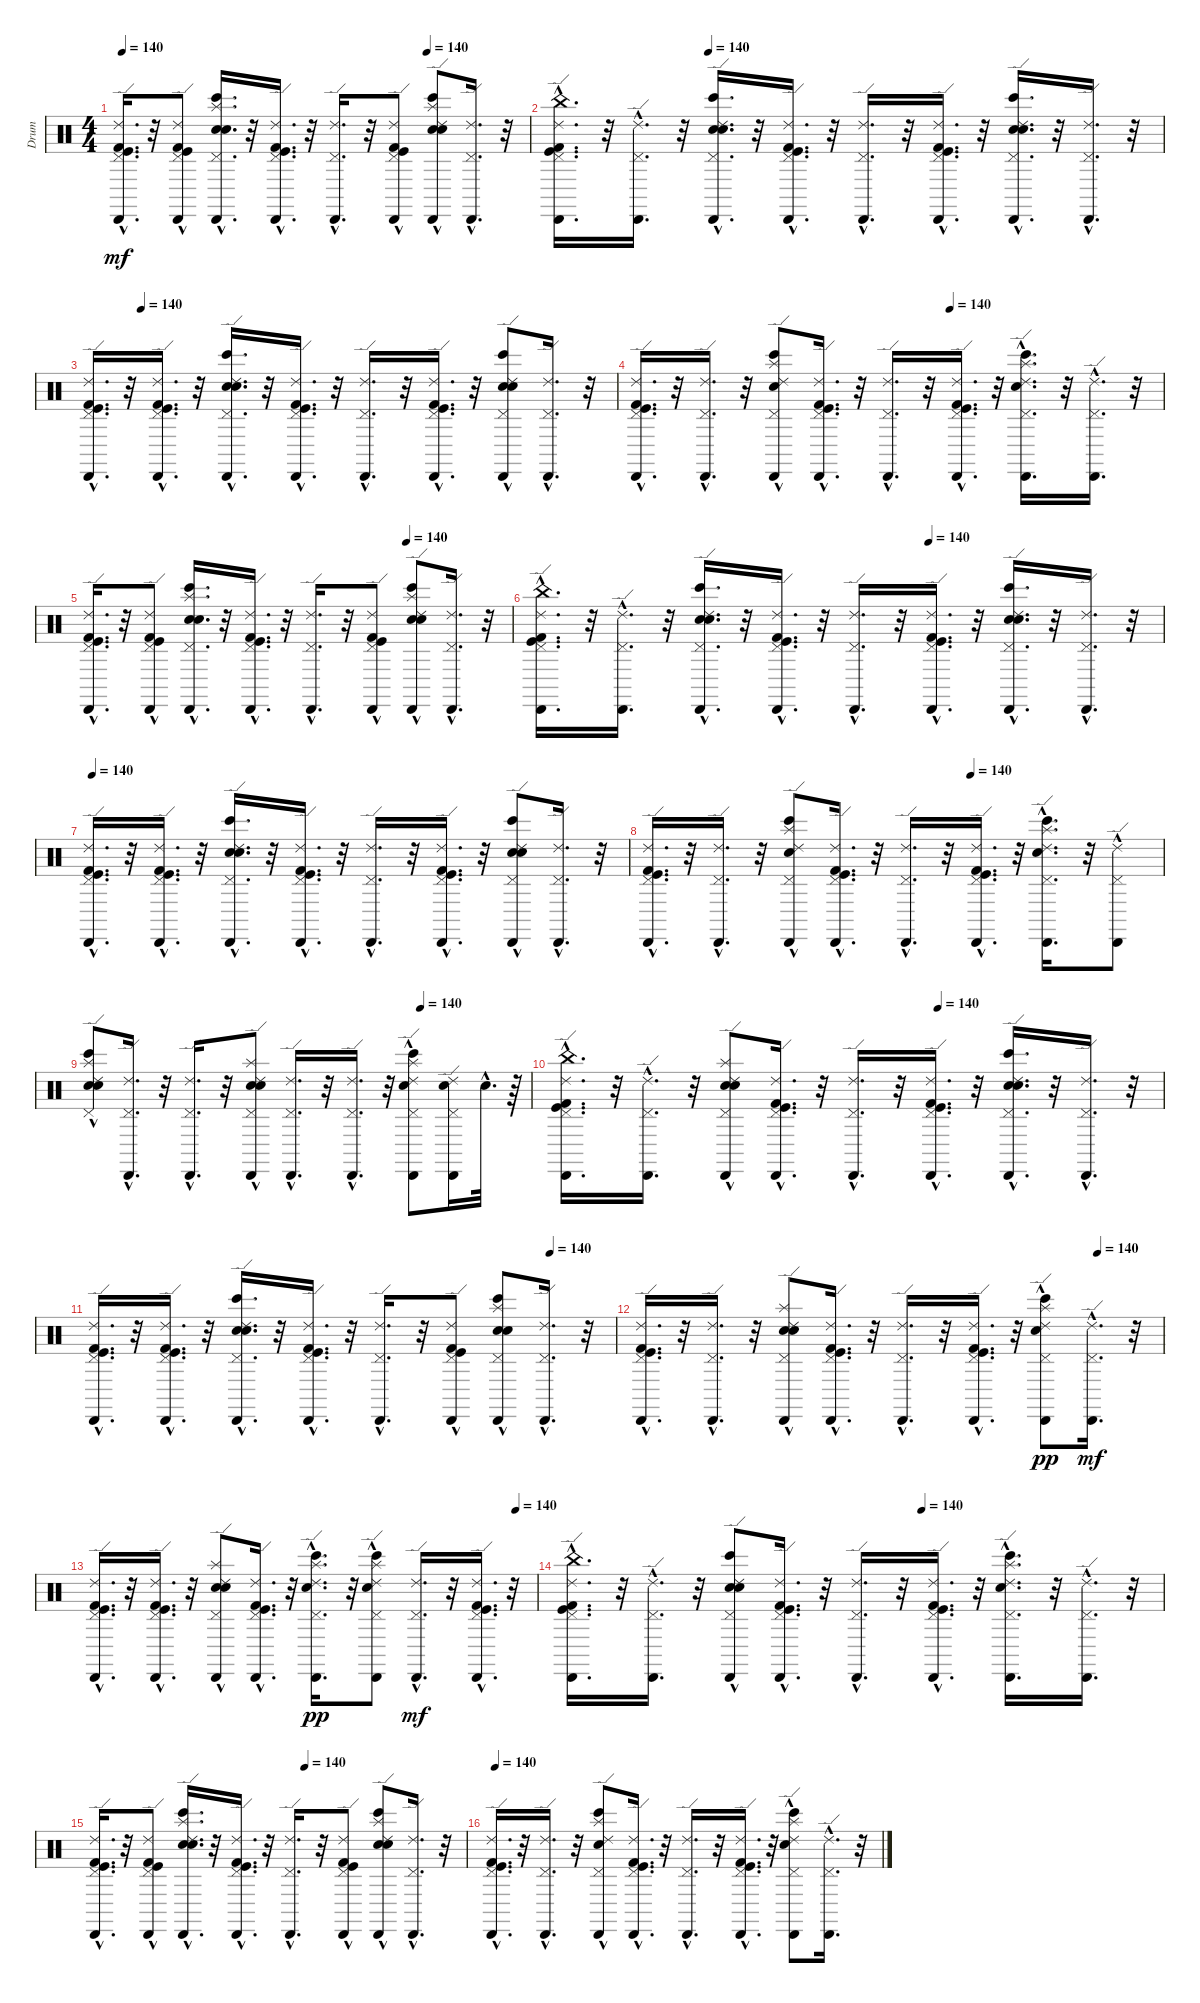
\track ("Drum" "Drum") {instrument percussion}
\staff {score}
\articulation defaults
\ts (4 4)
\tempo 140
\tempo (140 0.75)
\clef neutral
\ks c
("Ride (edge) 2"{hac} "Kick (hit) 2"{hac} "Cabasa (hit)"{hac} "Kick (hit)"{hac} "Pedal Hi-Hat (hit)"{hac}).16{d dy mf} r.32 ("Cabasa (hit)"{hac} "Ride (edge) 2"{hac} "Pedal Hi-Hat (hit)"{hac} "Kick (hit)"{hac} "Kick (hit) 2"{hac}).8 ("Electric Snare (hit)"{hac} "Bongo High (hit)"{hac} "Splash (hit)"{hac} "Snare (hit) 2"{hac} "Pedal Hi-Hat (hit)"{hac} "Cabasa (hit)"{hac}).16{d} r.32 ("Ride (edge) 2"{hac} "Kick (hit) 2"{hac} "Cabasa (hit)"{hac} "Kick (hit)"{hac} "Pedal Hi-Hat (hit)"{hac}).16{d} r.32 ("Cabasa (hit)"{hac} "Ride (edge) 2"{hac} "Pedal Hi-Hat (hit)"{hac}).16{d} r.32 ("Cabasa (hit)"{hac} "Ride (edge) 2"{hac} "Kick (hit)"{hac} "Pedal Hi-Hat (hit)"{hac} "Kick (hit) 2"{hac}).8 ("Bongo High (hit)"{hac} "Electric Snare (hit)"{hac} "Cabasa (hit)"{hac} "Splash (hit)" "Snare (hit) 2"{hac} "Ride (edge) 2"{hac}).8 ("Cabasa (hit)"{hac} "Ride (edge) 2"{hac} "Pedal Hi-Hat (hit)"{hac}).16{d} r.32 |
\tempo (140 0.25)
("Pedal Hi-Hat (hit)"{hac} "Kick (hit)"{hac} "Kick (hit) 2"{hac} "Ride (edge) 2"{hac} "Cabasa (hit)"{hac} "China (hit)"{hac}).16{d} r.32 ("Pedal Hi-Hat (hit)"{hac} "Ride (edge) 2"{hac} "Cabasa (hit)"{hac}).16{d} r.32 ("Pedal Hi-Hat (hit)"{hac} "Snare (hit) 2"{hac} "Ride (edge) 2"{hac} "Cabasa (hit)"{hac} "Electric Snare (hit)"{hac} "Bongo High (hit)"{hac}).16{d} r.32 ("Pedal Hi-Hat (hit)"{hac} "Kick (hit)"{hac} "Kick (hit) 2"{hac} "Ride (edge) 2"{hac} "Cabasa (hit)"{hac}).16{d} r.32 ("Pedal Hi-Hat (hit)"{hac} "Ride (edge) 2"{hac} "Cabasa (hit)"{hac}).16{d} r.32 ("Pedal Hi-Hat (hit)"{hac} "Kick (hit)"{hac} "Kick (hit) 2"{hac} "Ride (edge) 2"{hac} "Cabasa (hit)"{hac}).16{d} r.32 ("Pedal Hi-Hat (hit)"{hac} "Snare (hit) 2"{hac} "Ride (edge) 2"{hac} "Cabasa (hit)"{hac} "Electric Snare (hit)"{hac} "Bongo High (hit)"{hac}).16{d} r.32 ("Pedal Hi-Hat (hit)"{hac} "Ride (edge) 2"{hac} "Cabasa (hit)"{hac}).16{d} r.32 |
\tempo (140 0.09375)
("Kick (hit)"{hac} "Pedal Hi-Hat (hit)"{hac} "Kick (hit) 2"{hac} "Ride (edge) 2"{hac} "Cabasa (hit)"{hac}).16{d} r.32 ("Pedal Hi-Hat (hit)"{hac} "Kick (hit)"{hac} "Kick (hit) 2"{hac} "Ride (edge) 2"{hac} "Cabasa (hit)"{hac}).16{d} r.32 ("Snare (hit) 2"{hac} "Pedal Hi-Hat (hit)"{hac} "Ride (edge) 2"{hac} "Cabasa (hit)"{hac} "Bongo High (hit)"{hac} "Electric Snare (hit)"{hac}).16{d} r.32 ("Kick (hit)"{hac} "Pedal Hi-Hat (hit)"{hac} "Kick (hit) 2"{hac} "Ride (edge) 2"{hac} "Cabasa (hit)"{hac}).16{d} r.32 ("Pedal Hi-Hat (hit)"{hac} "Ride (edge) 2"{hac} "Cabasa (hit)"{hac}).16{d} r.32 ("Kick (hit)"{hac} "Pedal Hi-Hat (hit)"{hac} "Kick (hit) 2"{hac} "Ride (edge) 2"{hac} "Cabasa (hit)"{hac}).16{d} r.32 ("Snare (hit) 2"{hac} "Pedal Hi-Hat (hit)"{hac} "Ride (edge) 2"{hac} "Cabasa (hit)"{hac} "Bongo High (hit)"{hac} "Electric Snare (hit)").8 ("Pedal Hi-Hat (hit)"{hac} "Ride (edge) 2"{hac} "Cabasa (hit)"{hac}).16{d} r.32 |
\tempo (140 0.59375)
("Cabasa (hit)"{hac} "Ride (edge) 2"{hac} "Kick (hit) 2"{hac} "Pedal Hi-Hat (hit)"{hac} "Kick (hit)"{hac}).16{d} r.32 ("Cabasa (hit)"{hac} "Pedal Hi-Hat (hit)"{hac} "Ride (edge) 2"{hac}).16{d} r.32 ("Snare (hit) 2" "Cabasa (hit)"{hac} "Splash (hit)"{hac} "Pedal Hi-Hat (hit)"{hac} "Ride (edge) 2"{hac} "Bongo High (hit)"{hac}).8 ("Cabasa (hit)"{hac} "Ride (edge) 2"{hac} "Kick (hit) 2"{hac} "Kick (hit)"{hac} "Pedal Hi-Hat (hit)"{hac}).16{d} r.32 ("Ride (edge) 2"{hac} "Pedal Hi-Hat (hit)"{hac} "Cabasa (hit)"{hac}).16{d} r.32 ("Ride (edge) 2"{hac} "Pedal Hi-Hat (hit)"{hac} "Cabasa (hit)"{hac} "Kick (hit) 2"{hac} "Kick (hit)"{hac}).16{d} r.32 ("Electric Snare (hit)"{hac} "Splash (hit)"{hac} "Bongo High (hit)"{hac} "Ride (edge) 2"{hac} "Pedal Hi-Hat (hit)"{hac} "Cabasa (hit)"{hac}).16{d} r.32 ("Ride (edge) 2"{hac} "Cabasa (hit)"{hac} "Pedal Hi-Hat (hit)"{hac}).16{d} r.32 |
\tempo (140 0.75)
("Ride (edge) 2"{hac} "Kick (hit) 2"{hac} "Cabasa (hit)"{hac} "Kick (hit)"{hac} "Pedal Hi-Hat (hit)"{hac}).16{d} r.32 ("Cabasa (hit)"{hac} "Ride (edge) 2"{hac} "Pedal Hi-Hat (hit)"{hac} "Kick (hit)"{hac} "Kick (hit) 2"{hac}).8 ("Electric Snare (hit)"{hac} "Bongo High (hit)"{hac} "Splash (hit)"{hac} "Snare (hit) 2"{hac} "Pedal Hi-Hat (hit)"{hac} "Cabasa (hit)"{hac}).16{d} r.32 ("Ride (edge) 2"{hac} "Kick (hit) 2"{hac} "Cabasa (hit)"{hac} "Kick (hit)"{hac} "Pedal Hi-Hat (hit)"{hac}).16{d} r.32 ("Cabasa (hit)"{hac} "Ride (edge) 2"{hac} "Pedal Hi-Hat (hit)"{hac}).16{d} r.32 ("Cabasa (hit)"{hac} "Ride (edge) 2"{hac} "Kick (hit)"{hac} "Pedal Hi-Hat (hit)"{hac} "Kick (hit) 2"{hac}).8 ("Bongo High (hit)"{hac} "Electric Snare (hit)"{hac} "Cabasa (hit)"{hac} "Splash (hit)" "Snare (hit) 2"{hac} "Ride (edge) 2"{hac}).8 ("Cabasa (hit)"{hac} "Ride (edge) 2"{hac} "Pedal Hi-Hat (hit)"{hac}).16{d} r.32 |
\tempo (140 0.625)
("Pedal Hi-Hat (hit)"{hac} "Kick (hit)"{hac} "Kick (hit) 2"{hac} "Ride (edge) 2"{hac} "Cabasa (hit)"{hac} "China (hit)"{hac}).16{d} r.32 ("Pedal Hi-Hat (hit)"{hac} "Ride (edge) 2"{hac} "Cabasa (hit)"{hac}).16{d} r.32 ("Pedal Hi-Hat (hit)"{hac} "Snare (hit) 2"{hac} "Ride (edge) 2"{hac} "Cabasa (hit)"{hac} "Electric Snare (hit)"{hac} "Bongo High (hit)"{hac}).16{d} r.32 ("Pedal Hi-Hat (hit)"{hac} "Kick (hit)"{hac} "Kick (hit) 2"{hac} "Ride (edge) 2"{hac} "Cabasa (hit)"{hac}).16{d} r.32 ("Pedal Hi-Hat (hit)"{hac} "Ride (edge) 2"{hac} "Cabasa (hit)"{hac}).16{d} r.32 ("Pedal Hi-Hat (hit)"{hac} "Kick (hit)"{hac} "Kick (hit) 2"{hac} "Ride (edge) 2"{hac} "Cabasa (hit)"{hac}).16{d} r.32 ("Pedal Hi-Hat (hit)"{hac} "Snare (hit) 2"{hac} "Ride (edge) 2"{hac} "Cabasa (hit)"{hac} "Electric Snare (hit)"{hac} "Bongo High (hit)"{hac}).16{d} r.32 ("Pedal Hi-Hat (hit)"{hac} "Ride (edge) 2"{hac} "Cabasa (hit)"{hac}).16{d} r.32 |
\tempo 140
("Kick (hit)"{hac} "Pedal Hi-Hat (hit)"{hac} "Ride (edge) 2"{hac} "Kick (hit) 2"{hac} "Cabasa (hit)"{hac}).16{d} r.32 ("Pedal Hi-Hat (hit)"{hac} "Kick (hit) 2"{hac} "Ride (edge) 2"{hac} "Kick (hit)"{hac} "Cabasa (hit)"{hac}).16{d} r.32 ("Snare (hit) 2"{hac} "Ride (edge) 2"{hac} "Pedal Hi-Hat (hit)"{hac} "Bongo High (hit)"{hac} "Electric Snare (hit)"{hac} "Cabasa (hit)"{hac}).16{d} r.32 ("Pedal Hi-Hat (hit)"{hac} "Kick (hit) 2"{hac} "Kick (hit)"{hac} "Ride (edge) 2"{hac} "Cabasa (hit)"{hac}).16{d} r.32 ("Cabasa (hit)"{hac} "Ride (edge) 2"{hac} "Pedal Hi-Hat (hit)"{hac}).16{d} r.32 ("Kick (hit)"{hac} "Ride (edge) 2"{hac} "Kick (hit) 2"{hac} "Cabasa (hit)"{hac} "Pedal Hi-Hat (hit)"{hac}).16{d} r.32 ("Snare (hit) 2"{hac} "Pedal Hi-Hat (hit)"{hac} "Cabasa (hit)"{hac} "Bongo High (hit)"{hac} "Ride (edge) 2"{hac} "Electric Snare (hit)").8 ("Ride (edge) 2"{hac} "Pedal Hi-Hat (hit)"{hac} "Cabasa (hit)"{hac}).16{d} r.32 |
\tempo (140 0.625)
("Cabasa (hit)"{hac} "Ride (edge) 2"{hac} "Kick (hit) 2"{hac} "Pedal Hi-Hat (hit)"{hac} "Kick (hit)"{hac}).16{d} r.32 ("Cabasa (hit)"{hac} "Pedal Hi-Hat (hit)"{hac} "Ride (edge) 2"{hac}).16{d} r.32 ("Snare (hit) 2" "Cabasa (hit)"{hac} "Splash (hit)"{hac} "Pedal Hi-Hat (hit)"{hac} "Ride (edge) 2"{hac} "Bongo High (hit)"{hac}).8 ("Cabasa (hit)"{hac} "Ride (edge) 2"{hac} "Kick (hit) 2"{hac} "Kick (hit)"{hac} "Pedal Hi-Hat (hit)"{hac}).16{d} r.32 ("Ride (edge) 2"{hac} "Pedal Hi-Hat (hit)"{hac} "Cabasa (hit)"{hac}).16{d} r.32 ("Ride (edge) 2"{hac} "Pedal Hi-Hat (hit)"{hac} "Cabasa (hit)"{hac} "Kick (hit) 2"{hac} "Kick (hit)"{hac}).16{d} r.32 ("Electric Snare (hit)"{hac} "Splash (hit)"{hac} "Bongo High (hit)"{hac} "Ride (edge) 2"{hac} "Pedal Hi-Hat (hit)"{hac} "Cabasa (hit)"{hac}).16{d} r.32 ("Ride (edge) 2"{hac} "Cabasa (hit)"{hac} "Pedal Hi-Hat (hit)"{hac}).8 |
\tempo (140 0.75)
("Snare (hit) 2"{hac} "Bongo High (hit)"{hac} "Electric Snare (hit)"{hac} "Pedal Hi-Hat (hit)"{hac} "Ride (edge) 2"{hac} "Splash (hit)"{hac}).8 ("Pedal Hi-Hat (hit)"{hac} "Ride (edge) 2"{hac} "Cabasa (hit)"{hac}).16{d} r.32 ("Cabasa (hit)"{hac} "Ride (edge) 2"{hac} "Pedal Hi-Hat (hit)"{hac}).16{d} r.32 ("Cabasa (hit)"{hac} "Snare (hit) 2"{hac} "Electric Snare (hit)"{hac} "Splash (hit)"{hac} "Ride (edge) 2"{hac} "Pedal Hi-Hat (hit)"{hac}).8 ("Pedal Hi-Hat (hit)"{hac} "Cabasa (hit)"{hac} "Ride (edge) 2"{hac}).16{d} r.32 ("Ride (edge) 2"{hac} "Cabasa (hit)"{hac} "Pedal Hi-Hat (hit)"{hac}).16{d} r.32 ("Cabasa (hit)"{hac} "Ride (edge) 2"{hac} "Bongo High (hit)" "Snare (hit) 2"{hac} "Splash (hit)"{hac} "Pedal Hi-Hat (hit)"{hac}).8 ("Cabasa (hit)" "Ride (edge) 2" "Snare (hit) 2" "Pedal Hi-Hat (hit)").16 "Snare (hit) 2"{hac}.32{d} r.64 |
\tempo (140 0.625)
("Pedal Hi-Hat (hit)"{hac} "Kick (hit) 2"{hac} "China (hit)"{hac} "Ride (edge) 2"{hac} "Kick (hit)"{hac} "Cabasa (hit)"{hac}).16{d} r.32 ("Pedal Hi-Hat (hit)"{hac} "Cabasa (hit)"{hac} "Ride (edge) 2"{hac}).16{d} r.32 ("Splash (hit)" "Ride (edge) 2"{hac} "Electric Snare (hit)"{hac} "Snare (hit) 2"{hac} "Pedal Hi-Hat (hit)"{hac} "Cabasa (hit)"{hac}).8 ("Cabasa (hit)"{hac} "Ride (edge) 2"{hac} "Kick (hit)"{hac} "Pedal Hi-Hat (hit)"{hac} "Kick (hit) 2"{hac}).16{d} r.32 ("Cabasa (hit)"{hac} "Pedal Hi-Hat (hit)"{hac} "Ride (edge) 2"{hac}).16{d} r.32 ("Pedal Hi-Hat (hit)"{hac} "Kick (hit)"{hac} "Kick (hit) 2"{hac} "Cabasa (hit)"{hac} "Ride (edge) 2"{hac}).16{d} r.32 ("Ride (edge) 2"{hac} "Bongo High (hit)"{hac} "Snare (hit) 2"{hac} "Cabasa (hit)"{hac} "Pedal Hi-Hat (hit)"{hac} "Electric Snare (hit)"{hac}).16{d} r.32 ("Cabasa (hit)"{hac} "Ride (edge) 2"{hac} "Pedal Hi-Hat (hit)"{hac}).16{d} r.32 |
\tempo (140 0.875)
("Kick (hit) 2"{hac} "Pedal Hi-Hat (hit)"{hac} "Ride (edge) 2"{hac} "Cabasa (hit)"{hac} "Kick (hit)"{hac}).16{d} r.32 ("Pedal Hi-Hat (hit)"{hac} "Kick (hit)"{hac} "Kick (hit) 2"{hac} "Ride (edge) 2"{hac} "Cabasa (hit)"{hac}).16{d} r.32 ("Electric Snare (hit)"{hac} "Snare (hit) 2"{hac} "Bongo High (hit)"{hac} "Ride (edge) 2"{hac} "Cabasa (hit)"{hac} "Pedal Hi-Hat (hit)"{hac}).16{d} r.32 ("Ride (edge) 2"{hac} "Pedal Hi-Hat (hit)"{hac} "Cabasa (hit)"{hac} "Kick (hit)"{hac} "Kick (hit) 2"{hac}).16{d} r.32 ("Cabasa (hit)"{hac} "Pedal Hi-Hat (hit)"{hac} "Ride (edge) 2"{hac}).16{d} r.32 ("Ride (edge) 2"{hac} "Cabasa (hit)"{hac} "Kick (hit) 2"{hac} "Kick (hit)"{hac} "Pedal Hi-Hat (hit)"{hac}).8 ("Electric Snare (hit)"{hac} "Snare (hit) 2"{hac} "Bongo High (hit)" "Splash (hit)"{hac} "Cabasa (hit)"{hac} "Pedal Hi-Hat (hit)"{hac}).8 ("Cabasa (hit)"{hac} "Ride (edge) 2"{hac} "Pedal Hi-Hat (hit)"{hac}).16{d} r.32 |
\tempo (140 0.875)
("Kick (hit) 2"{hac} "Pedal Hi-Hat (hit)"{hac} "Ride (edge) 2"{hac} "Cabasa (hit)"{hac} "Kick (hit)"{hac}).16{d} r.32 ("Pedal Hi-Hat (hit)"{hac} "Ride (edge) 2"{hac} "Cabasa (hit)"{hac}).16{d} r.32 ("Snare (hit) 2" "Cabasa (hit)"{hac} "Ride (edge) 2"{hac} "Pedal Hi-Hat (hit)"{hac} "Splash (hit)"{hac} "Electric Snare (hit)"{hac}).8 ("Pedal Hi-Hat (hit)"{hac} "Kick (hit)"{hac} "Ride (edge) 2"{hac} "Kick (hit) 2"{hac} "Cabasa (hit)"{hac}).16{d} r.32 ("Pedal Hi-Hat (hit)"{hac} "Cabasa (hit)"{hac} "Ride (edge) 2"{hac}).16{d} r.32 ("Kick (hit) 2"{hac} "Pedal Hi-Hat (hit)"{hac} "Ride (edge) 2"{hac} "Kick (hit)"{hac} "Cabasa (hit)"{hac}).16{d} r.32 ("Electric Snare (hit)"{hac} "Ride (edge) 2"{hac} "Pedal Hi-Hat (hit)"{hac} "Bongo High (hit)" "Cabasa (hit)"{hac} "Splash (hit)"{hac}).8{dy pp} ("Pedal Hi-Hat (hit)"{hac} "Ride (edge) 2"{hac} "Cabasa (hit)"{hac}).16{d dy mf} r.32 |
\tempo (140 0.953125)
("Kick (hit)"{hac} "Kick (hit) 2"{hac} "Cabasa (hit)"{hac} "Ride (edge) 2"{hac} "Pedal Hi-Hat (hit)"{hac}).16{d} r.32 ("Kick (hit) 2"{hac} "Pedal Hi-Hat (hit)"{hac} "Cabasa (hit)"{hac} "Ride (edge) 2"{hac} "Kick (hit)"{hac}).16{d} r.32 ("Splash (hit)"{hac} "Electric Snare (hit)"{hac} "Pedal Hi-Hat (hit)"{hac} "Snare (hit) 2"{hac} "Cabasa (hit)"{hac} "Ride (edge) 2"{hac}).8 ("Kick (hit) 2"{hac} "Pedal Hi-Hat (hit)"{hac} "Cabasa (hit)"{hac} "Ride (edge) 2"{hac} "Kick (hit)"{hac}).16{d} r.32 ("Pedal Hi-Hat (hit)"{hac} "Ride (edge) 2"{hac} "Electric Snare (hit)"{hac} "Cabasa (hit)"{hac} "Bongo High (hit)"{hac} "Splash (hit)"{hac}).16{d dy pp} r.32 ("Electric Snare (hit)"{hac} "Cabasa (hit)"{hac} "Bongo High (hit)"{hac} "Pedal Hi-Hat (hit)"{hac} "Ride (edge) 2"{hac} "Splash (hit)").8 ("Pedal Hi-Hat (hit)"{hac} "Cabasa (hit)"{hac} "Ride (edge) 2"{hac}).16{d dy mf} r.32 ("Pedal Hi-Hat (hit)"{hac} "Cabasa (hit)"{hac} "Ride (edge) 2"{hac} "Kick (hit) 2"{hac} "Kick (hit)"{hac}).16{d} r.32 |
\tempo (140 0.59375)
("Cabasa (hit)"{hac} "Kick (hit)"{hac} "Ride (edge) 2"{hac} "China (hit)"{hac} "Pedal Hi-Hat (hit)"{hac} "Kick (hit) 2"{hac}).16{d} r.32 ("Pedal Hi-Hat (hit)"{hac} "Ride (edge) 2"{hac} "Cabasa (hit)"{hac}).16{d} r.32 ("Electric Snare (hit)"{hac} "Snare (hit) 2" "Bongo High (hit)"{hac} "Cabasa (hit)"{hac} "Pedal Hi-Hat (hit)"{hac} "Ride (edge) 2"{hac}).8 ("Kick (hit) 2"{hac} "Cabasa (hit)"{hac} "Ride (edge) 2"{hac} "Pedal Hi-Hat (hit)"{hac} "Kick (hit)"{hac}).16{d} r.32 ("Pedal Hi-Hat (hit)"{hac} "Ride (edge) 2"{hac} "Cabasa (hit)"{hac}).16{d} r.32 ("Ride (edge) 2"{hac} "Pedal Hi-Hat (hit)"{hac} "Cabasa (hit)"{hac} "Kick (hit) 2"{hac} "Kick (hit)"{hac}).16{d} r.32 ("Electric Snare (hit)"{hac} "Splash (hit)"{hac} "Bongo High (hit)"{hac} "Ride (edge) 2"{hac} "Pedal Hi-Hat (hit)"{hac} "Cabasa (hit)"{hac}).16{d} r.32 ("Cabasa (hit)"{hac} "Pedal Hi-Hat (hit)"{hac} "Ride (edge) 2"{hac}).16{d} r.32 |
\tempo (140 0.5625)
("Ride (edge) 2"{hac} "Kick (hit)"{hac} "Pedal Hi-Hat (hit)"{hac} "Kick (hit) 2"{hac} "Cabasa (hit)"{hac}).16{d} r.32 ("Ride (edge) 2"{hac} "Kick (hit) 2"{hac} "Pedal Hi-Hat (hit)"{hac} "Cabasa (hit)"{hac} "Kick (hit)"{hac}).8 ("Cabasa (hit)"{hac} "Ride (edge) 2"{hac} "Snare (hit) 2"{hac} "Electric Snare (hit)"{hac} "Splash (hit)"{hac} "Bongo High (hit)"{hac}).16{d} r.32 ("Ride (edge) 2"{hac} "Cabasa (hit)"{hac} "Pedal Hi-Hat (hit)"{hac} "Kick (hit)"{hac} "Kick (hit) 2"{hac}).16{d} r.32 ("Cabasa (hit)"{hac} "Pedal Hi-Hat (hit)"{hac} "Ride (edge) 2"{hac}).16{d} r.32 ("Cabasa (hit)"{hac} "Kick (hit) 2"{hac} "Ride (edge) 2"{hac} "Pedal Hi-Hat (hit)"{hac} "Kick (hit)"{hac}).8 ("Splash (hit)"{hac} "Electric Snare (hit)" "Snare (hit) 2"{hac} "Bongo High (hit)"{hac} "Cabasa (hit)"{hac} "Ride (edge) 2"{hac}).8 ("Cabasa (hit)"{hac} "Pedal Hi-Hat (hit)"{hac} "Ride (edge) 2"{hac}).16{d} r.32 |
\tempo 140
("Cabasa (hit)"{hac} "Ride (edge) 2"{hac} "Kick (hit) 2"{hac} "Pedal Hi-Hat (hit)"{hac} "Kick (hit)"{hac}).16{d} r.32 ("Ride (edge) 2"{hac} "Pedal Hi-Hat (hit)"{hac} "Cabasa (hit)"{hac}).16{d} r.32 ("Splash (hit)"{hac} "Pedal Hi-Hat (hit)"{hac} "Cabasa (hit)"{hac} "Snare (hit) 2" "Ride (edge) 2"{hac} "Bongo High (hit)"{hac}).8 ("Cabasa (hit)"{hac} "Kick (hit) 2"{hac} "Ride (edge) 2"{hac} "Pedal Hi-Hat (hit)"{hac} "Kick (hit)"{hac}).16{d} r.32 ("Cabasa (hit)"{hac} "Pedal Hi-Hat (hit)"{hac} "Ride (edge) 2"{hac}).16{d} r.32 ("Kick (hit)"{hac} "Ride (edge) 2"{hac} "Pedal Hi-Hat (hit)"{hac} "Kick (hit) 2"{hac} "Cabasa (hit)"{hac}).16{d} r.32 ("Splash (hit)"{hac} "Cabasa (hit)"{hac} "Ride (edge) 2"{hac} "Electric Snare (hit)"{hac} "Pedal Hi-Hat (hit)"{hac} "Bongo High (hit)").8 ("Ride (edge) 2"{hac} "Cabasa (hit)"{hac} "Pedal Hi-Hat (hit)"{hac}).16{d} r.32
